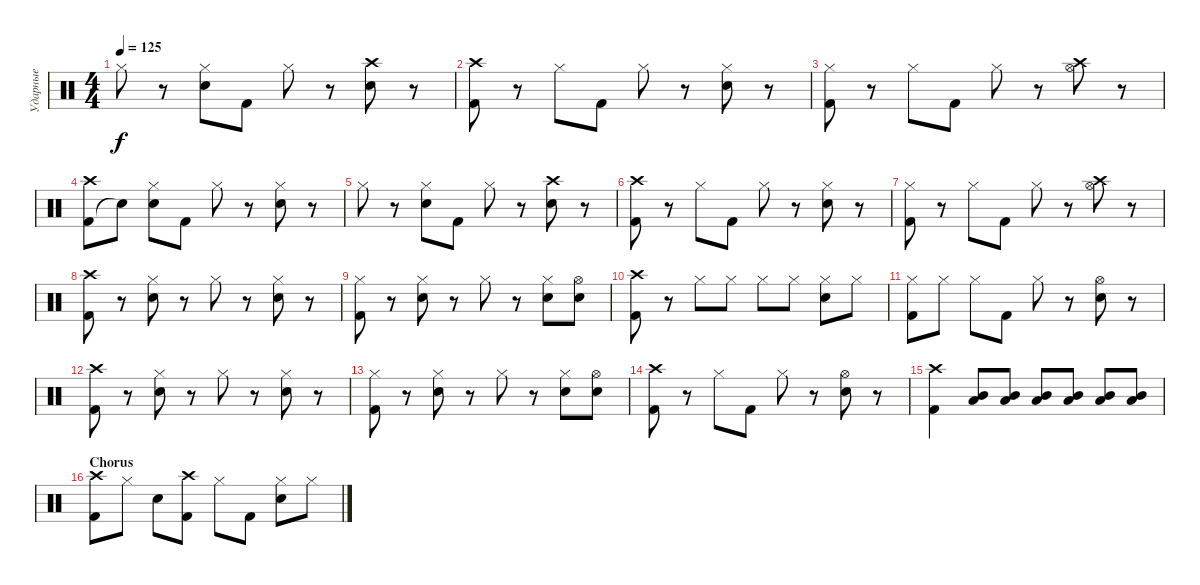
\track ("Ударные" "Ударные") {instrument percussion}
\staff {score}
\articulation defaults
\ts (4 4)
\tempo 125
\clef neutral
\ks c "Hi-Hat (closed)".8{dy f}
r.8 ("Snare (hit) 2" "Hi-Hat (closed)").8 "Kick (hit) 2".8 "Hi-Hat (closed)".8 r.8 ("Crash high (hit)" "Snare (hit) 2").8 r.8 |
("Kick (hit) 2" "Crash high (hit)").8 r.8 "Hi-Hat (closed)".8 "Kick (hit) 2".8 "Hi-Hat (closed)".8 r.8 ("Snare (hit) 2" "Hi-Hat (closed)").8 r.8 |
("Kick (hit) 2" "Hi-Hat (closed)").8 r.8 "Hi-Hat (closed)".8 "Kick (hit) 2".8 "Hi-Hat (closed)".8 r.8 ("Crash high (hit)" "Hi-Hat (open)").8 r.8 |
("Kick (hit) 2" "Crash high (hit)").8 "Snare (hit)"{t}.8 ("Hi-Hat (closed)" "Snare (hit) 2").8 "Kick (hit) 2".8 "Hi-Hat (closed)".8 r.8 ("Snare (hit) 2" "Hi-Hat (closed)").8 r.8 |
"Hi-Hat (closed)".8 r.8 ("Snare (hit) 2" "Hi-Hat (closed)").8 "Kick (hit) 2".8 "Hi-Hat (closed)".8 r.8 ("Crash high (hit)" "Snare (hit) 2").8 r.8 |
("Kick (hit) 2" "Crash high (hit)").8 r.8 "Hi-Hat (closed)".8 "Kick (hit) 2".8 "Hi-Hat (closed)".8 r.8 ("Snare (hit) 2" "Hi-Hat (closed)").8 r.8 |
("Kick (hit) 2" "Hi-Hat (closed)").8 r.8 "Hi-Hat (closed)".8 "Kick (hit) 2".8 "Hi-Hat (closed)".8 r.8 ("Crash high (hit)" "Hi-Hat (open)").8 r.8 |
("Crash high (hit)" "Kick (hit) 2").8 r.8 ("Hi-Hat (closed)" "Snare (hit) 2").8 r.8 "Hi-Hat (closed)".8 r.8 ("Hi-Hat (closed)" "Snare (hit) 2").8 r.8 |
("Kick (hit) 2" "Hi-Hat (closed)").8 r.8 ("Snare (hit) 2" "Hi-Hat (closed)").8 r.8 "Hi-Hat (closed)".8 r.8 ("Snare (hit) 2" "Hi-Hat (closed)").8 ("Snare (hit) 2" "Hi-Hat (open)").8 |
("Crash high (hit)" "Kick (hit) 2").8 r.8 "Hi-Hat (closed)".8 "Hi-Hat (closed)".8 "Hi-Hat (closed)".8 "Hi-Hat (closed)".8 ("Snare (hit) 2" "Hi-Hat (closed)").8 "Hi-Hat (closed)".8 |
("Hi-Hat (closed)" "Kick (hit) 2").8 "Hi-Hat (closed)".8 "Hi-Hat (closed)".8 "Kick (hit) 2".8 "Hi-Hat (closed)".8 r.8 ("Hi-Hat (open)" "Snare (hit) 2").8 r.8 |
("Crash high (hit)" "Kick (hit) 2").8 r.8 ("Hi-Hat (closed)" "Snare (hit) 2").8 r.8 "Hi-Hat (closed)".8 r.8 ("Hi-Hat (closed)" "Snare (hit) 2").8 r.8 |
("Kick (hit) 2" "Hi-Hat (closed)").8 r.8 ("Snare (hit) 2" "Hi-Hat (closed)").8 r.8 "Hi-Hat (closed)".8 r.8 ("Snare (hit) 2" "Hi-Hat (closed)").8 ("Snare (hit) 2" "Hi-Hat (open)").8 |
("Kick (hit) 2" "Crash high (hit)").8 r.8 "Hi-Hat (closed)".8 "Kick (hit) 2".8 "Hi-Hat (closed)".8 r.8 ("Snare (hit) 2" "Hi-Hat (open)").8 r.8 |
("Crash high (hit)" "Kick (hit) 2").4 ("Low Tom (hit)" "Mid Tom (hit)").8 ("Low Tom (hit)" "Mid Tom (hit)").8 ("Low Tom (hit)" "Mid Tom (hit)").8 ("Low Tom (hit)" "Mid Tom (hit)").8 ("Low Tom (hit)" "Mid Tom (hit)").8 ("Low Tom (hit)" "Mid Tom (hit)").8 |
\section ("" "Chorus")
("Crash high (hit)" "Kick (hit) 2").8 "Hi-Hat (closed)".8 "Snare (hit) 2".8 ("Crash high (hit)" "Kick (hit) 2").8 "Hi-Hat (closed)".8 "Kick (hit) 2".8 ("Hi-Hat (closed)" "Snare (hit) 2").8 "Hi-Hat (closed)".8
